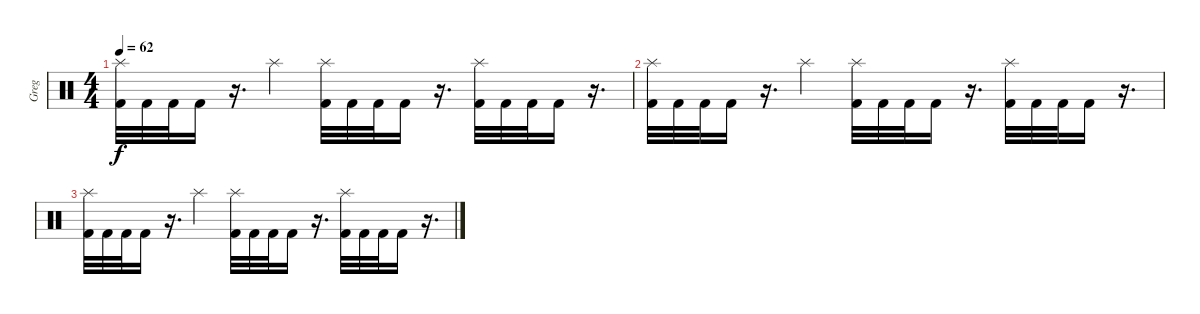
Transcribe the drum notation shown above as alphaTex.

\track ("Greg" "Greg") {instrument percussion}
\staff {score}
\articulation defaults
\ts (4 4)
\tempo 62
\clef neutral
\ks c
("Splash (hit)" "Kick (hit) 2").32{dy f} "Kick (hit) 2".32 "Kick (hit) 2".32 "Kick (hit) 2".16 r.16{d} "Splash (hit)".4 ("Splash (hit)" "Kick (hit) 2").32 "Kick (hit) 2".32 "Kick (hit) 2".32 "Kick (hit) 2".16 r.16{d} ("Splash (hit)" "Kick (hit) 2").32 "Kick (hit) 2".32 "Kick (hit) 2".32 "Kick (hit) 2".16 r.16{d} |
("Splash (hit)" "Kick (hit) 2").32 "Kick (hit) 2".32 "Kick (hit) 2".32 "Kick (hit) 2".16 r.16{d} "Splash (hit)".4 ("Splash (hit)" "Kick (hit) 2").32 "Kick (hit) 2".32 "Kick (hit) 2".32 "Kick (hit) 2".16 r.16{d} ("Splash (hit)" "Kick (hit) 2").32 "Kick (hit) 2".32 "Kick (hit) 2".32 "Kick (hit) 2".16 r.16{d} |
("Splash (hit)" "Kick (hit) 2").32 "Kick (hit) 2".32 "Kick (hit) 2".32 "Kick (hit) 2".16 r.16{d} "Splash (hit)".4 ("Splash (hit)" "Kick (hit) 2").32 "Kick (hit) 2".32 "Kick (hit) 2".32 "Kick (hit) 2".16 r.16{d} ("Splash (hit)" "Kick (hit) 2").32 "Kick (hit) 2".32 "Kick (hit) 2".32 "Kick (hit) 2".16 r.16{d}
